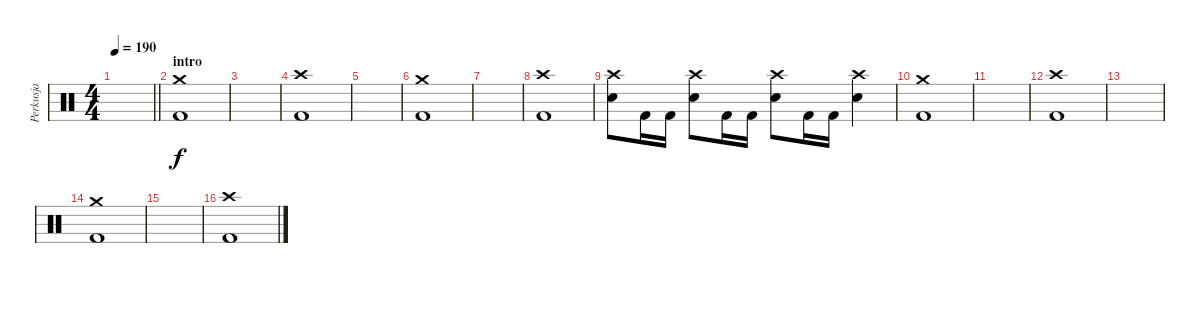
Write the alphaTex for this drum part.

\track ("Perkusja" "Perkusja") {instrument percussion}
\staff {score}
\articulation defaults
\ts (4 4)
\tempo 190
\clef neutral
\barLineRight lightlight
\ks c
|
\section ("" "intro")
("Kick (hit) 2" "Crash medium (hit)").1 |
|
("Kick (hit) 2" "Crash high (hit)").1 |
|
("Kick (hit) 2" "Crash medium (hit)").1 |
|
("Kick (hit) 2" "Crash high (hit)").1 |
("Crash high (hit)" "Snare (hit) 2").8 "Kick (hit) 2".16 "Kick (hit) 2".16 ("Crash high (hit)" "Snare (hit) 2").8 "Kick (hit) 2".16 "Kick (hit) 2".16 ("Crash high (hit)" "Snare (hit) 2").8 "Kick (hit) 2".16 "Kick (hit) 2".16 ("Crash high (hit)" "Snare (hit) 2").4 |
("Kick (hit) 2" "Crash medium (hit)").1 |
|
("Kick (hit) 2" "Crash high (hit)").1 |
|
("Kick (hit) 2" "Crash medium (hit)").1 |
|
("Kick (hit) 2" "Crash high (hit)").1
